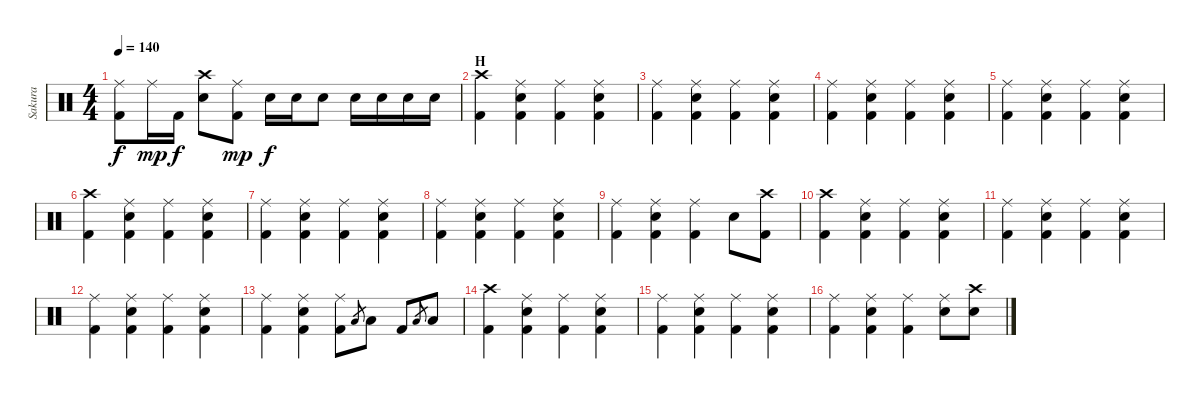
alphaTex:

\track ("Sakura" "Sakura") {instrument percussion}
\staff {score}
\articulation defaults
\ts (4 4)
\tempo 140
\clef neutral
\ks c
("Ride (middle)" "Kick (hit) 2").8{dy f} "Ride (middle)".16{dy mp} "Kick (hit) 2".16{dy f} ("Crash high (hit)" "Electric Snare (hit)").8 ("Ride (middle)" "Kick (hit) 2").8{dy mp} "Electric Snare (hit)".16{dy f} "Electric Snare (hit)".16 "Electric Snare (hit)".8 "Electric Snare (hit)".16 "Electric Snare (hit)".16 "Electric Snare (hit)".16 "Electric Snare (hit)".16 |
\section ("" "H")
("Crash high (hit)" "Kick (hit) 2").4 ("Ride (middle)" "Electric Snare (hit)" "Kick (hit) 2").4 ("Ride (middle)" "Kick (hit) 2").4 ("Ride (middle)" "Electric Snare (hit)" "Kick (hit) 2").4 |
("Ride (middle)" "Kick (hit) 2").4 ("Ride (middle)" "Electric Snare (hit)" "Kick (hit) 2").4 ("Ride (middle)" "Kick (hit) 2").4 ("Ride (middle)" "Electric Snare (hit)" "Kick (hit) 2").4 |
("Ride (middle)" "Kick (hit) 2").4 ("Ride (middle)" "Electric Snare (hit)" "Kick (hit) 2").4 ("Ride (middle)" "Kick (hit) 2").4 ("Ride (middle)" "Electric Snare (hit)" "Kick (hit) 2").4 |
("Ride (middle)" "Kick (hit) 2").4 ("Ride (middle)" "Electric Snare (hit)" "Kick (hit) 2").4 ("Ride (middle)" "Kick (hit) 2").4 ("Ride (middle)" "Electric Snare (hit)" "Kick (hit) 2").4 |
("Crash high (hit)" "Kick (hit) 2").4 ("Ride (middle)" "Electric Snare (hit)" "Kick (hit) 2").4 ("Ride (middle)" "Kick (hit) 2").4 ("Ride (middle)" "Electric Snare (hit)" "Kick (hit) 2").4 |
("Ride (middle)" "Kick (hit) 2").4 ("Ride (middle)" "Electric Snare (hit)" "Kick (hit) 2").4 ("Ride (middle)" "Kick (hit) 2").4 ("Ride (middle)" "Electric Snare (hit)" "Kick (hit) 2").4 |
("Ride (middle)" "Kick (hit) 2").4 ("Ride (middle)" "Electric Snare (hit)" "Kick (hit) 2").4 ("Ride (middle)" "Kick (hit) 2").4 ("Ride (middle)" "Electric Snare (hit)" "Kick (hit) 2").4 |
("Ride (middle)" "Kick (hit) 2").4 ("Ride (middle)" "Electric Snare (hit)" "Kick (hit) 2").4 ("Ride (middle)" "Kick (hit) 2").4 "Electric Snare (hit)".8 ("Crash high (hit)" "Kick (hit) 2").8 |
("Crash high (hit)" "Kick (hit) 2").4 ("Ride (middle)" "Electric Snare (hit)" "Kick (hit) 2").4 ("Ride (middle)" "Kick (hit) 2").4 ("Ride (middle)" "Electric Snare (hit)" "Kick (hit) 2").4 |
("Ride (middle)" "Kick (hit) 2").4 ("Ride (middle)" "Electric Snare (hit)" "Kick (hit) 2").4 ("Ride (middle)" "Kick (hit) 2").4 ("Ride (middle)" "Electric Snare (hit)" "Kick (hit) 2").4 |
("Ride (middle)" "Kick (hit) 2").4 ("Ride (middle)" "Electric Snare (hit)" "Kick (hit) 2").4 ("Ride (middle)" "Kick (hit) 2").4 ("Ride (middle)" "Electric Snare (hit)" "Kick (hit) 2").4 |
("Ride (middle)" "Kick (hit) 2").4 ("Ride (middle)" "Electric Snare (hit)" "Kick (hit) 2").4 ("Ride (middle)" "Kick (hit) 2").8 "Low Tom (hit)".8{gr} "Low Tom (hit)".8 "Kick (hit) 2".8 "Low Tom (hit)".8{gr} "Low Tom (hit)".8 |
("Crash high (hit)" "Kick (hit) 2").4 ("Ride (middle)" "Electric Snare (hit)" "Kick (hit) 2").4 ("Ride (middle)" "Kick (hit) 2").4 ("Ride (middle)" "Electric Snare (hit)" "Kick (hit) 2").4 |
("Ride (middle)" "Kick (hit) 2").4 ("Ride (middle)" "Electric Snare (hit)" "Kick (hit) 2").4 ("Ride (middle)" "Kick (hit) 2").4 ("Ride (middle)" "Electric Snare (hit)" "Kick (hit) 2").4 |
("Ride (middle)" "Kick (hit) 2").4 ("Ride (middle)" "Electric Snare (hit)" "Kick (hit) 2").4 ("Ride (middle)" "Kick (hit) 2").4 ("Ride (middle)" "Electric Snare (hit)").8 ("Crash high (hit)" "Electric Snare (hit)").8
